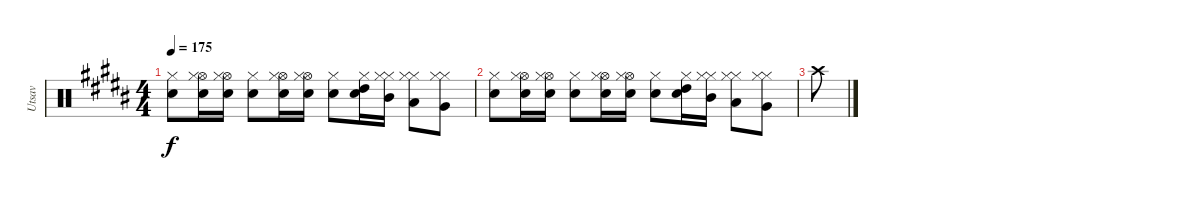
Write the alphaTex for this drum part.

\track ("Utsav" "Utsav") {instrument percussion}
\staff {score}
\articulation defaults
\ts (4 4)
\tempo 175
\clef neutral
\ks b
("Electric Snare (hit)" "Hi-Hat (closed)").8{dy f} ("Hi-Hat (open)" "Snare (hit) 2" "Hi-Hat (closed)").16 ("Hi-Hat (open)" "Snare (hit) 2" "Hi-Hat (closed)").16 ("Electric Snare (hit)" "Hi-Hat (closed)").8 ("Hi-Hat (open)" "Snare (hit) 2" "Hi-Hat (closed)").16 ("Hi-Hat (open)" "Snare (hit) 2" "Hi-Hat (closed)").16 ("Electric Snare (hit)" "Hi-Hat (closed)").8 ("Hi-Hat (closed)" "High Tom (hit)" "Snare (hit)").16 ("Hi-Hat (closed)" "Mid Tom (hit)" "Hi-Hat (closed)").16 ("Hi-Hat (closed)" "Low Tom (hit)" "Hi-Hat (closed)").8 ("Hi-Hat (closed)" "Very Low Tom (hit)" "Hi-Hat (closed)").8 |
("Electric Snare (hit)" "Hi-Hat (closed)").8 ("Hi-Hat (open)" "Snare (hit) 2" "Hi-Hat (closed)").16 ("Hi-Hat (open)" "Snare (hit) 2" "Hi-Hat (closed)").16 ("Electric Snare (hit)" "Hi-Hat (closed)").8 ("Hi-Hat (open)" "Snare (hit) 2" "Hi-Hat (closed)").16 ("Hi-Hat (open)" "Snare (hit) 2" "Hi-Hat (closed)").16 ("Electric Snare (hit)" "Hi-Hat (closed)").8 ("Hi-Hat (closed)" "High Tom (hit)" "Snare (hit)").16 ("Hi-Hat (closed)" "Mid Tom (hit)" "Hi-Hat (closed)").16 ("Hi-Hat (closed)" "Low Tom (hit)" "Hi-Hat (closed)").8 ("Hi-Hat (closed)" "Very Low Tom (hit)" "Hi-Hat (closed)").8 |
"Crash high (hit)".8
